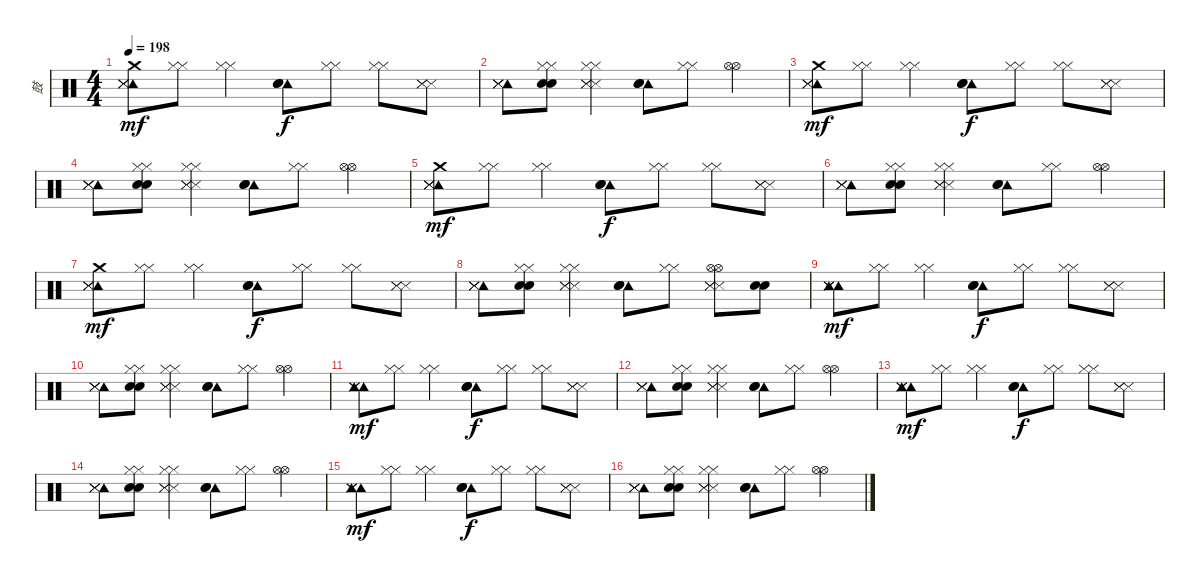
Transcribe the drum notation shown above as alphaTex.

\track ("鼓" "鼓") {instrument percussion}
\staff {score}
\articulation defaults
\ts (4 4)
\tempo 198
\clef neutral
\ks c
("Tambourine (hit)" "Crash medium (hit)" "Metronome (hit)" "Metronome (hit)" "Metronome (hit)").8{dy mf} ("Hi-Hat (closed)" "Hi-Hat (closed)").8 ("Hi-Hat (closed)" "Hi-Hat (closed)").4 ("Tambourine (hit)" "Metronome (bell)" "Metronome (bell)").8{dy f} ("Hi-Hat (closed)" "Hi-Hat (closed)").8 ("Hi-Hat (closed)" "Hi-Hat (closed)").8 ("Metronome (hit)" "Metronome (hit)" "Metronome (hit)").8 |
("Tambourine (hit)" "Metronome (hit)" "Metronome (hit)" "Metronome (hit)").8 ("Hi-Hat (closed)" "Hi-Hat (closed)" "Metronome (bell)" "Metronome (bell)").8 ("Hi-Hat (closed)" "Hi-Hat (closed)" "Metronome (hit)" "Metronome (hit)" "Metronome (hit)").4 ("Tambourine (hit)" "Metronome (bell)" "Metronome (bell)").8 ("Hi-Hat (closed)" "Hi-Hat (closed)").8 ("Hi-Hat (open)" "Hi-Hat (open)").4 |
("Tambourine (hit)" "Crash medium (hit)" "Metronome (hit)" "Metronome (hit)" "Metronome (hit)").8{dy mf} ("Hi-Hat (closed)" "Hi-Hat (closed)").8 ("Hi-Hat (closed)" "Hi-Hat (closed)").4 ("Tambourine (hit)" "Metronome (bell)" "Metronome (bell)").8{dy f} ("Hi-Hat (closed)" "Hi-Hat (closed)").8 ("Hi-Hat (closed)" "Hi-Hat (closed)").8 ("Metronome (hit)" "Metronome (hit)" "Metronome (hit)").8 |
("Tambourine (hit)" "Metronome (hit)" "Metronome (hit)" "Metronome (hit)").8 ("Hi-Hat (closed)" "Hi-Hat (closed)" "Metronome (bell)" "Metronome (bell)").8 ("Hi-Hat (closed)" "Hi-Hat (closed)" "Metronome (hit)" "Metronome (hit)" "Metronome (hit)").4 ("Tambourine (hit)" "Metronome (bell)" "Metronome (bell)").8 ("Hi-Hat (closed)" "Hi-Hat (closed)").8 ("Hi-Hat (open)" "Hi-Hat (open)").4 |
("Tambourine (hit)" "Crash medium (hit)" "Metronome (hit)" "Metronome (hit)" "Metronome (hit)").8{dy mf} ("Hi-Hat (closed)" "Hi-Hat (closed)").8 ("Hi-Hat (closed)" "Hi-Hat (closed)").4 ("Tambourine (hit)" "Metronome (bell)" "Metronome (bell)").8{dy f} ("Hi-Hat (closed)" "Hi-Hat (closed)").8 ("Hi-Hat (closed)" "Hi-Hat (closed)").8 ("Metronome (hit)" "Metronome (hit)" "Metronome (hit)").8 |
("Tambourine (hit)" "Metronome (hit)" "Metronome (hit)" "Metronome (hit)").8 ("Hi-Hat (closed)" "Hi-Hat (closed)" "Metronome (bell)" "Metronome (bell)").8 ("Hi-Hat (closed)" "Hi-Hat (closed)" "Metronome (hit)" "Metronome (hit)" "Metronome (hit)").4 ("Tambourine (hit)" "Metronome (bell)" "Metronome (bell)").8 ("Hi-Hat (closed)" "Hi-Hat (closed)").8 ("Hi-Hat (open)" "Hi-Hat (open)").4 |
("Tambourine (hit)" "Crash medium (hit)" "Metronome (hit)" "Metronome (hit)" "Metronome (hit)").8{dy mf} ("Hi-Hat (closed)" "Hi-Hat (closed)").8 ("Hi-Hat (closed)" "Hi-Hat (closed)").4 ("Tambourine (hit)" "Metronome (bell)" "Metronome (bell)").8{dy f} ("Hi-Hat (closed)" "Hi-Hat (closed)").8 ("Hi-Hat (closed)" "Hi-Hat (closed)").8 ("Metronome (hit)" "Metronome (hit)" "Metronome (hit)").8 |
("Tambourine (hit)" "Metronome (hit)" "Metronome (hit)" "Metronome (hit)").8 ("Hi-Hat (closed)" "Hi-Hat (closed)" "Metronome (bell)" "Metronome (bell)").8 ("Hi-Hat (closed)" "Hi-Hat (closed)" "Metronome (hit)" "Metronome (hit)" "Metronome (hit)").4 ("Tambourine (hit)" "Metronome (bell)" "Metronome (bell)").8 ("Hi-Hat (closed)" "Hi-Hat (closed)").8 ("Hi-Hat (open)" "Hi-Hat (open)" "Metronome (hit)" "Metronome (hit)" "Metronome (hit)").8 ("Metronome (bell)" "Metronome (bell)").8 |
("Tambourine (hit)" "Tambourine (hit)" "Metronome (hit)" "Metronome (hit)" "Metronome (hit)").8{dy mf} ("Hi-Hat (closed)" "Hi-Hat (closed)").8 ("Hi-Hat (closed)" "Hi-Hat (closed)").4 ("Tambourine (hit)" "Metronome (bell)" "Metronome (bell)").8{dy f} ("Hi-Hat (closed)" "Hi-Hat (closed)").8 ("Hi-Hat (closed)" "Hi-Hat (closed)").8 ("Metronome (hit)" "Metronome (hit)" "Metronome (hit)").8 |
("Tambourine (hit)" "Metronome (hit)" "Metronome (hit)" "Metronome (hit)").8 ("Hi-Hat (closed)" "Hi-Hat (closed)" "Metronome (bell)" "Metronome (bell)").8 ("Hi-Hat (closed)" "Hi-Hat (closed)" "Metronome (hit)" "Metronome (hit)" "Metronome (hit)").4 ("Tambourine (hit)" "Metronome (bell)" "Metronome (bell)").8 ("Hi-Hat (closed)" "Hi-Hat (closed)").8 ("Hi-Hat (open)" "Hi-Hat (open)").4 |
("Tambourine (hit)" "Tambourine (hit)" "Metronome (hit)" "Metronome (hit)" "Metronome (hit)").8{dy mf} ("Hi-Hat (closed)" "Hi-Hat (closed)").8 ("Hi-Hat (closed)" "Hi-Hat (closed)").4 ("Tambourine (hit)" "Metronome (bell)" "Metronome (bell)").8{dy f} ("Hi-Hat (closed)" "Hi-Hat (closed)").8 ("Hi-Hat (closed)" "Hi-Hat (closed)").8 ("Metronome (hit)" "Metronome (hit)" "Metronome (hit)").8 |
("Tambourine (hit)" "Metronome (hit)" "Metronome (hit)" "Metronome (hit)").8 ("Hi-Hat (closed)" "Hi-Hat (closed)" "Metronome (bell)" "Metronome (bell)").8 ("Hi-Hat (closed)" "Hi-Hat (closed)" "Metronome (hit)" "Metronome (hit)" "Metronome (hit)").4 ("Tambourine (hit)" "Metronome (bell)" "Metronome (bell)").8 ("Hi-Hat (closed)" "Hi-Hat (closed)").8 ("Hi-Hat (open)" "Hi-Hat (open)").4 |
("Tambourine (hit)" "Tambourine (hit)" "Metronome (hit)" "Metronome (hit)" "Metronome (hit)").8{dy mf} ("Hi-Hat (closed)" "Hi-Hat (closed)").8 ("Hi-Hat (closed)" "Hi-Hat (closed)").4 ("Tambourine (hit)" "Metronome (bell)" "Metronome (bell)").8{dy f} ("Hi-Hat (closed)" "Hi-Hat (closed)").8 ("Hi-Hat (closed)" "Hi-Hat (closed)").8 ("Metronome (hit)" "Metronome (hit)" "Metronome (hit)").8 |
("Tambourine (hit)" "Metronome (hit)" "Metronome (hit)" "Metronome (hit)").8 ("Hi-Hat (closed)" "Hi-Hat (closed)" "Metronome (bell)" "Metronome (bell)").8 ("Hi-Hat (closed)" "Hi-Hat (closed)" "Metronome (hit)" "Metronome (hit)" "Metronome (hit)").4 ("Tambourine (hit)" "Metronome (bell)" "Metronome (bell)").8 ("Hi-Hat (closed)" "Hi-Hat (closed)").8 ("Hi-Hat (open)" "Hi-Hat (open)").4 |
("Tambourine (hit)" "Tambourine (hit)" "Metronome (hit)" "Metronome (hit)" "Metronome (hit)").8{dy mf} ("Hi-Hat (closed)" "Hi-Hat (closed)").8 ("Hi-Hat (closed)" "Hi-Hat (closed)").4 ("Tambourine (hit)" "Metronome (bell)" "Metronome (bell)").8{dy f} ("Hi-Hat (closed)" "Hi-Hat (closed)").8 ("Hi-Hat (closed)" "Hi-Hat (closed)").8 ("Metronome (hit)" "Metronome (hit)" "Metronome (hit)").8 |
("Tambourine (hit)" "Metronome (hit)" "Metronome (hit)" "Metronome (hit)").8 ("Hi-Hat (closed)" "Hi-Hat (closed)" "Metronome (bell)" "Metronome (bell)").8 ("Hi-Hat (closed)" "Hi-Hat (closed)" "Metronome (hit)" "Metronome (hit)" "Metronome (hit)").4 ("Tambourine (hit)" "Metronome (bell)" "Metronome (bell)").8 ("Hi-Hat (closed)" "Hi-Hat (closed)").8 ("Hi-Hat (open)" "Hi-Hat (open)").4
